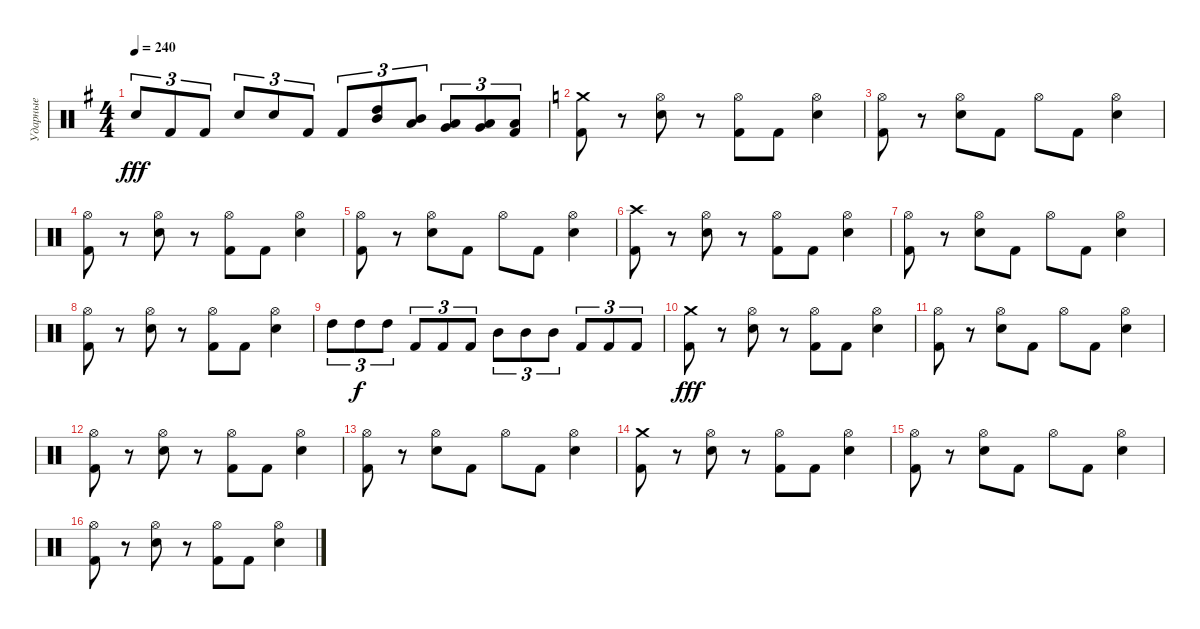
\track ("Ударные" "Ударные") {instrument percussion}
\staff {score}
\articulation defaults
\ts (4 4)
\tempo 240
\clef neutral
\ks eminor "Electric Snare (hit)".8{tu (3 2) dy fff} "Kick (hit) 2".8{tu (3 2)} "Kick (hit) 2".8{tu (3 2)} "Electric Snare (hit)".8{tu (3 2)} "Electric Snare (hit)".8{tu (3 2)} "Kick (hit) 2".8{tu (3 2)} "Kick (hit) 2".8{tu (3 2)}
("High Tom (hit)" "Mid Tom (hit)").8{tu (3 2)} ("Mid Tom (hit)" "Low Tom (hit)").8{tu (3 2)} ("Low Tom (hit)" "Very Low Tom (hit)").8{tu (3 2)} ("Very Low Tom (hit)" "Low Floor Tom (hit)").8{tu (3 2)} ("Low Floor Tom (hit)" "Kick (hit) 2").8{tu (3 2)} |
\ks c
("Crash medium (hit)" "Kick (hit) 2").8 r.8 ("Hi-Hat (open)" "Electric Snare (hit)").8 r.8 ("Hi-Hat (open)" "Kick (hit) 2").8 "Kick (hit) 2".8 ("Hi-Hat (open)" "Electric Snare (hit)").4 |
("Hi-Hat (open)" "Kick (hit) 2").8 r.8 ("Hi-Hat (open)" "Electric Snare (hit)").8 "Kick (hit) 2".8 "Hi-Hat (open)".8 "Kick (hit) 2".8 ("Hi-Hat (open)" "Electric Snare (hit)").4 |
("Hi-Hat (open)" "Kick (hit) 2").8 r.8 ("Hi-Hat (open)" "Electric Snare (hit)").8 r.8 ("Hi-Hat (open)" "Kick (hit) 2").8 "Kick (hit) 2".8 ("Hi-Hat (open)" "Electric Snare (hit)").4 |
("Hi-Hat (open)" "Kick (hit) 2").8 r.8 ("Hi-Hat (open)" "Electric Snare (hit)").8 "Kick (hit) 2".8 "Hi-Hat (open)".8 "Kick (hit) 2".8 ("Hi-Hat (open)" "Electric Snare (hit)").4 |
("Crash high (hit)" "Kick (hit) 2").8 r.8 ("Hi-Hat (open)" "Electric Snare (hit)").8 r.8 ("Hi-Hat (open)" "Kick (hit) 2").8 "Kick (hit) 2".8 ("Hi-Hat (open)" "Electric Snare (hit)").4 |
("Hi-Hat (open)" "Kick (hit) 2").8 r.8 ("Hi-Hat (open)" "Electric Snare (hit)").8 "Kick (hit) 2".8 "Hi-Hat (open)".8 "Kick (hit) 2".8 ("Hi-Hat (open)" "Electric Snare (hit)").4 |
("Hi-Hat (open)" "Kick (hit) 2").8 r.8 ("Hi-Hat (open)" "Electric Snare (hit)").8 r.8 ("Hi-Hat (open)" "Kick (hit) 2").8 "Kick (hit) 2".8 ("Hi-Hat (open)" "Electric Snare (hit)").4 |
"High Tom (hit)".8{tu (3 2)} "High Tom (hit)".8{tu (3 2) dy f} "High Tom (hit)".8{tu (3 2)} "Kick (hit) 2".8{tu (3 2)} "Kick (hit) 2".8{tu (3 2)} "Kick (hit) 2".8{tu (3 2)} "Mid Tom (hit)".8{tu (3 2)} "Mid Tom (hit)".8{tu (3 2)} "Mid Tom (hit)".8{tu (3 2)} "Kick (hit) 2".8{tu (3 2)} "Kick (hit) 2".8{tu (3 2)} "Kick (hit) 2".8{tu (3 2)} |
("Crash medium (hit)" "Kick (hit) 2").8{dy fff} r.8 ("Hi-Hat (open)" "Electric Snare (hit)").8 r.8 ("Hi-Hat (open)" "Kick (hit) 2").8 "Kick (hit) 2".8 ("Hi-Hat (open)" "Electric Snare (hit)").4 |
("Hi-Hat (open)" "Kick (hit) 2").8 r.8 ("Hi-Hat (open)" "Electric Snare (hit)").8 "Kick (hit) 2".8 "Hi-Hat (open)".8 "Kick (hit) 2".8 ("Hi-Hat (open)" "Electric Snare (hit)").4 |
("Hi-Hat (open)" "Kick (hit) 2").8 r.8 ("Hi-Hat (open)" "Electric Snare (hit)").8 r.8 ("Hi-Hat (open)" "Kick (hit) 2").8 "Kick (hit) 2".8 ("Hi-Hat (open)" "Electric Snare (hit)").4 |
("Hi-Hat (open)" "Kick (hit) 2").8 r.8 ("Hi-Hat (open)" "Electric Snare (hit)").8 "Kick (hit) 2".8 "Hi-Hat (open)".8 "Kick (hit) 2".8 ("Hi-Hat (open)" "Electric Snare (hit)").4 |
("Crash medium (hit)" "Kick (hit) 2").8 r.8 ("Hi-Hat (open)" "Electric Snare (hit)").8 r.8 ("Hi-Hat (open)" "Kick (hit) 2").8 "Kick (hit) 2".8 ("Hi-Hat (open)" "Electric Snare (hit)").4 |
("Hi-Hat (open)" "Kick (hit) 2").8 r.8 ("Hi-Hat (open)" "Electric Snare (hit)").8 "Kick (hit) 2".8 "Hi-Hat (open)".8 "Kick (hit) 2".8 ("Hi-Hat (open)" "Electric Snare (hit)").4 |
("Hi-Hat (open)" "Kick (hit) 2").8 r.8 ("Hi-Hat (open)" "Electric Snare (hit)").8 r.8 ("Hi-Hat (open)" "Kick (hit) 2").8 "Kick (hit) 2".8 ("Hi-Hat (open)" "Electric Snare (hit)").4
